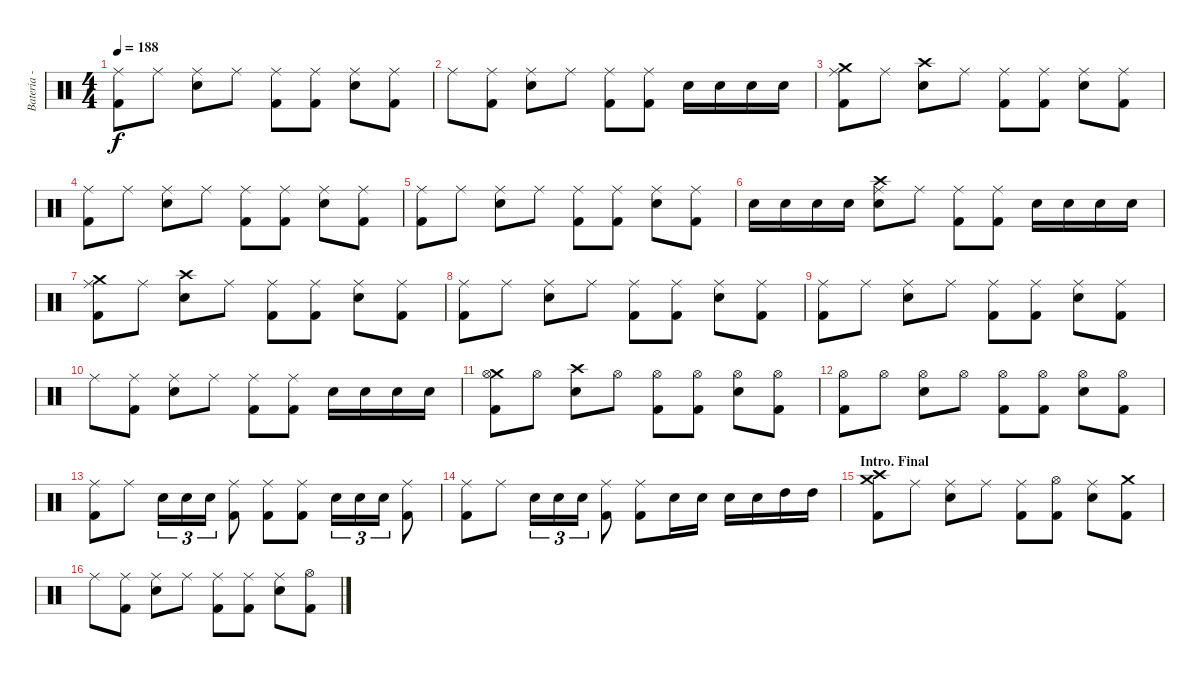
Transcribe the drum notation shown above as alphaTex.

\track ("Bateria - Larzon" "Bateria - ") {instrument percussion}
\staff {score}
\articulation defaults
\ts (4 4)
\tempo 188
\clef neutral
\ks c
("Kick (hit) 2" "Ride (middle)").8{dy f} "Ride (middle)".8 ("Snare (hit) 2" "Ride (middle)").8 "Ride (middle)".8 ("Kick (hit) 2" "Ride (middle)").8 ("Kick (hit) 2" "Ride (middle)").8 ("Snare (hit) 2" "Ride (middle)").8 ("Kick (hit) 2" "Ride (middle)").8 |
"Ride (middle)".8 ("Kick (hit) 2" "Ride (middle)").8 ("Snare (hit) 2" "Ride (middle)").8 "Ride (middle)".8 ("Kick (hit) 2" "Ride (middle)").8 ("Kick (hit) 2" "Ride (middle)").8 "Snare (hit) 2".16 "Snare (hit) 2".16 "Snare (hit) 2".16 "Snare (hit) 2".16 |
("Kick (hit) 2" "Crash medium (hit)" "Ride (middle)").8 "Ride (middle)".8 ("Snare (hit) 2" "Crash high (hit)").8 "Ride (middle)".8 ("Kick (hit) 2" "Ride (middle)").8 ("Kick (hit) 2" "Ride (middle)").8 ("Snare (hit) 2" "Ride (middle)").8 ("Kick (hit) 2" "Ride (middle)").8 |
("Kick (hit) 2" "Ride (middle)").8 "Ride (middle)".8 ("Snare (hit) 2" "Ride (middle)").8 "Ride (middle)".8 ("Kick (hit) 2" "Ride (middle)").8 ("Kick (hit) 2" "Ride (middle)").8 ("Snare (hit) 2" "Ride (middle)").8 ("Kick (hit) 2" "Ride (middle)").8 |
("Kick (hit) 2" "Ride (middle)").8 "Ride (middle)".8 ("Snare (hit) 2" "Ride (middle)").8 "Ride (middle)".8 ("Kick (hit) 2" "Ride (middle)").8 ("Kick (hit) 2" "Ride (middle)").8 ("Snare (hit) 2" "Ride (middle)").8 ("Kick (hit) 2" "Ride (middle)").8 |
"Snare (hit) 2".16 "Snare (hit) 2".16 "Snare (hit) 2".16 "Snare (hit) 2".16 ("Crash high (hit)" "Snare (hit) 2" "Ride (middle)").8 "Ride (middle)".8 ("Kick (hit) 2" "Ride (middle)").8 ("Kick (hit) 2" "Ride (middle)").8 "Snare (hit) 2".16 "Snare (hit) 2".16 "Snare (hit) 2".16 "Snare (hit) 2".16 |
("Kick (hit) 2" "Crash medium (hit)" "Ride (middle)").8 "Ride (middle)".8 ("Snare (hit) 2" "Crash high (hit)").8 "Ride (middle)".8 ("Kick (hit) 2" "Ride (middle)").8 ("Kick (hit) 2" "Ride (middle)").8 ("Snare (hit) 2" "Ride (middle)").8 ("Kick (hit) 2" "Ride (middle)").8 |
("Kick (hit) 2" "Ride (middle)").8 "Ride (middle)".8 ("Snare (hit) 2" "Ride (middle)").8 "Ride (middle)".8 ("Kick (hit) 2" "Ride (middle)").8 ("Kick (hit) 2" "Ride (middle)").8 ("Snare (hit) 2" "Ride (middle)").8 ("Kick (hit) 2" "Ride (middle)").8 |
("Kick (hit) 2" "Ride (middle)").8 "Ride (middle)".8 ("Snare (hit) 2" "Ride (middle)").8 "Ride (middle)".8 ("Kick (hit) 2" "Ride (middle)").8 ("Kick (hit) 2" "Ride (middle)").8 ("Snare (hit) 2" "Ride (middle)").8 ("Kick (hit) 2" "Ride (middle)").8 |
"Ride (middle)".8 ("Kick (hit) 2" "Ride (middle)").8 ("Snare (hit) 2" "Ride (middle)").8 "Ride (middle)".8 ("Kick (hit) 2" "Ride (middle)").8 ("Kick (hit) 2" "Ride (middle)").8 "Snare (hit) 2".16 "Snare (hit) 2".16 "Snare (hit) 2".16 "Snare (hit) 2".16 |
("Kick (hit) 2" "Crash medium (hit)" "Hi-Hat (open)").8 "Hi-Hat (open)".8 ("Snare (hit) 2" "Crash high (hit)").8 "Hi-Hat (open)".8 ("Kick (hit) 2" "Hi-Hat (open)").8 ("Kick (hit) 2" "Hi-Hat (open)").8 ("Snare (hit) 2" "Hi-Hat (open)").8 ("Kick (hit) 2" "Hi-Hat (open)").8 |
("Kick (hit) 2" "Hi-Hat (open)").8 "Hi-Hat (open)".8 ("Snare (hit) 2" "Hi-Hat (open)").8 "Hi-Hat (open)".8 ("Kick (hit) 2" "Hi-Hat (open)").8 ("Kick (hit) 2" "Hi-Hat (open)").8 ("Snare (hit) 2" "Hi-Hat (open)").8 ("Kick (hit) 2" "Hi-Hat (open)").8 |
("Kick (hit) 2" "Ride (middle)").8 "Ride (middle)".8 "Snare (hit) 2".16{tu (3 2)} "Snare (hit) 2".16{tu (3 2)} "Snare (hit) 2".16{tu (3 2)} ("Kick (hit) 2" "Ride (middle)").8 ("Kick (hit) 2" "Ride (middle)").8 ("Kick (hit) 2" "Ride (middle)").8 "Snare (hit) 2".16{tu (3 2)} "Snare (hit) 2".16{tu (3 2)} "Snare (hit) 2".16{tu (3 2)} ("Kick (hit) 2" "Ride (middle)").8 |
("Kick (hit) 2" "Ride (middle)").8 "Ride (middle)".8 "Snare (hit) 2".16{tu (3 2)} "Snare (hit) 2".16{tu (3 2)} "Snare (hit) 2".16{tu (3 2)} ("Kick (hit) 2" "Ride (middle)").8 ("Kick (hit) 2" "Ride (middle)").8 "Snare (hit) 2".16 "Snare (hit) 2".16 "Snare (hit) 2".16 "Snare (hit) 2".16 "High Tom (hit)".16 "High Tom (hit)".16 |
\section ("" "Intro. Final")
("Kick (hit) 2" "Crash medium (hit)" "Crash high (hit)").8 "Ride (middle)".8 ("Snare (hit) 2" "Ride (middle)").8 "Ride (middle)".8 ("Kick (hit) 2" "Ride (middle)").8 ("Kick (hit) 2" "Hi-Hat (open)").8 ("Snare (hit) 2" "Ride (middle)").8 ("Kick (hit) 2" "Crash medium (hit)").8 |
"Ride (middle)".8 ("Kick (hit) 2" "Ride (middle)").8 ("Snare (hit) 2" "Ride (middle)").8 "Ride (middle)".8 ("Kick (hit) 2" "Ride (middle)").8 ("Kick (hit) 2" "Ride (middle)").8 ("Snare (hit) 2" "Ride (middle)").8 ("Kick (hit) 2" "Hi-Hat (open)").8
